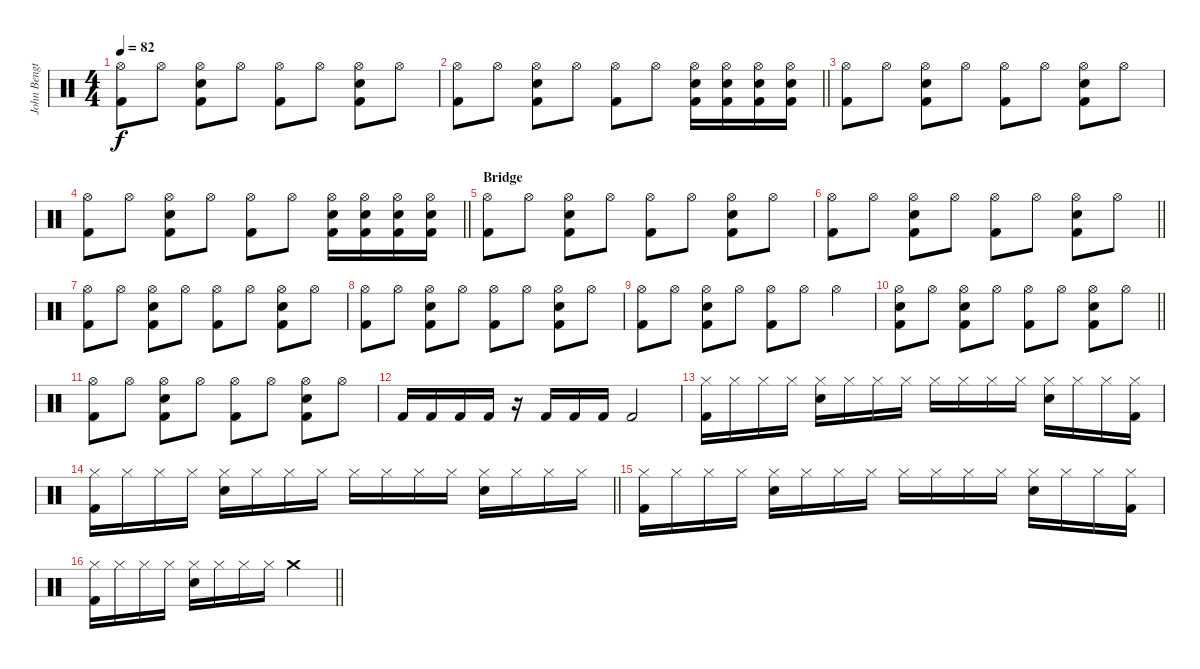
\track ("John Bengtsson" "John Bengt") {instrument percussion}
\staff {score}
\articulation defaults
\ts (4 4)
\tempo 82
\clef neutral
\ks c
("Hi-Hat (open)" "Kick (hit) 2").8{dy f} "Hi-Hat (open)".8 ("Hi-Hat (open)" "Electric Snare (hit)" "Kick (hit) 2").8 "Hi-Hat (open)".8 ("Hi-Hat (open)" "Kick (hit) 2").8 "Hi-Hat (open)".8 ("Hi-Hat (open)" "Electric Snare (hit)" "Kick (hit) 2").8 "Hi-Hat (open)".8 |
\barLineRight lightlight
("Hi-Hat (open)" "Kick (hit) 2").8 "Hi-Hat (open)".8 ("Hi-Hat (open)" "Electric Snare (hit)" "Kick (hit) 2").8 "Hi-Hat (open)".8 ("Hi-Hat (open)" "Kick (hit) 2").8 "Hi-Hat (open)".8 ("Hi-Hat (open)" "Electric Snare (hit)" "Kick (hit) 2").16 ("Hi-Hat (open)" "Electric Snare (hit)" "Kick (hit) 2").16 ("Hi-Hat (open)" "Electric Snare (hit)" "Kick (hit) 2").16 ("Hi-Hat (open)" "Electric Snare (hit)" "Kick (hit) 2").16 |
("Hi-Hat (open)" "Kick (hit) 2").8 "Hi-Hat (open)".8 ("Hi-Hat (open)" "Electric Snare (hit)" "Kick (hit) 2").8 "Hi-Hat (open)".8 ("Hi-Hat (open)" "Kick (hit) 2").8 "Hi-Hat (open)".8 ("Hi-Hat (open)" "Electric Snare (hit)" "Kick (hit) 2").8 "Hi-Hat (open)".8 |
\barLineRight lightlight
("Hi-Hat (open)" "Kick (hit) 2").8 "Hi-Hat (open)".8 ("Hi-Hat (open)" "Electric Snare (hit)" "Kick (hit) 2").8 "Hi-Hat (open)".8 ("Hi-Hat (open)" "Kick (hit) 2").8 "Hi-Hat (open)".8 ("Hi-Hat (open)" "Electric Snare (hit)" "Kick (hit) 2").16 ("Hi-Hat (open)" "Electric Snare (hit)" "Kick (hit) 2").16 ("Hi-Hat (open)" "Electric Snare (hit)" "Kick (hit) 2").16 ("Hi-Hat (open)" "Electric Snare (hit)" "Kick (hit) 2").16 |
\section ("" "Bridge")
("Hi-Hat (open)" "Kick (hit) 2").8 "Hi-Hat (open)".8 ("Hi-Hat (open)" "Electric Snare (hit)" "Kick (hit) 2").8 "Hi-Hat (open)".8 ("Hi-Hat (open)" "Kick (hit) 2").8 "Hi-Hat (open)".8 ("Hi-Hat (open)" "Electric Snare (hit)" "Kick (hit) 2").8 "Hi-Hat (open)".8 |
\barLineRight lightlight
("Hi-Hat (open)" "Kick (hit) 2").8 "Hi-Hat (open)".8 ("Hi-Hat (open)" "Electric Snare (hit)" "Kick (hit) 2").8 "Hi-Hat (open)".8 ("Hi-Hat (open)" "Kick (hit) 2").8 "Hi-Hat (open)".8 ("Hi-Hat (open)" "Electric Snare (hit)" "Kick (hit) 2").8 "Hi-Hat (open)".8 |
("Hi-Hat (open)" "Kick (hit) 2").8 "Hi-Hat (open)".8 ("Hi-Hat (open)" "Electric Snare (hit)" "Kick (hit) 2").8 "Hi-Hat (open)".8 ("Hi-Hat (open)" "Kick (hit) 2").8 "Hi-Hat (open)".8 ("Hi-Hat (open)" "Electric Snare (hit)" "Kick (hit) 2").8 "Hi-Hat (open)".8 |
("Hi-Hat (open)" "Kick (hit) 2").8 "Hi-Hat (open)".8 ("Hi-Hat (open)" "Electric Snare (hit)" "Kick (hit) 2").8 "Hi-Hat (open)".8 ("Hi-Hat (open)" "Kick (hit) 2").8 "Hi-Hat (open)".8 ("Hi-Hat (open)" "Electric Snare (hit)" "Kick (hit) 2").8 "Hi-Hat (open)".8 |
("Hi-Hat (open)" "Kick (hit) 2").8 "Hi-Hat (open)".8 ("Hi-Hat (open)" "Electric Snare (hit)" "Kick (hit) 2").8 "Hi-Hat (open)".8 ("Hi-Hat (open)" "Kick (hit) 2").8 "Hi-Hat (open)".8 "Hi-Hat (open)".4 |
\barLineRight lightlight
("Hi-Hat (open)" "Electric Snare (hit)" "Kick (hit) 2").8 "Hi-Hat (open)".8 ("Hi-Hat (open)" "Electric Snare (hit)" "Kick (hit) 2").8 "Hi-Hat (open)".8 ("Hi-Hat (open)" "Kick (hit) 2").8 "Hi-Hat (open)".8 ("Hi-Hat (open)" "Electric Snare (hit)" "Kick (hit) 2").8 "Hi-Hat (open)".8 |
("Hi-Hat (open)" "Kick (hit) 2").8 "Hi-Hat (open)".8 ("Hi-Hat (open)" "Electric Snare (hit)" "Kick (hit) 2").8 "Hi-Hat (open)".8 ("Hi-Hat (open)" "Kick (hit) 2").8 "Hi-Hat (open)".8 ("Hi-Hat (open)" "Electric Snare (hit)" "Kick (hit) 2").8 "Hi-Hat (open)".8 |
"Kick (hit) 2".16 "Kick (hit) 2".16 "Kick (hit) 2".16 "Kick (hit) 2".16 r.16 "Kick (hit) 2".16 "Kick (hit) 2".16 "Kick (hit) 2".16 "Kick (hit) 2".2 |
("Hi-Hat (closed)" "Kick (hit) 2").16 "Hi-Hat (closed)".16 "Hi-Hat (closed)".16 "Hi-Hat (closed)".16 ("Hi-Hat (closed)" "Electric Snare (hit)").16 "Hi-Hat (closed)".16 "Hi-Hat (closed)".16 "Hi-Hat (closed)".16 "Hi-Hat (closed)".16 "Hi-Hat (closed)".16 "Hi-Hat (closed)".16 "Hi-Hat (closed)".16 ("Hi-Hat (closed)" "Electric Snare (hit)").16 "Hi-Hat (closed)".16 "Hi-Hat (closed)".16 ("Hi-Hat (closed)" "Kick (hit) 2").16 |
\barLineRight lightlight
("Hi-Hat (closed)" "Kick (hit) 2").16 "Hi-Hat (closed)".16 "Hi-Hat (closed)".16 "Hi-Hat (closed)".16 ("Hi-Hat (closed)" "Electric Snare (hit)").16 "Hi-Hat (closed)".16 "Hi-Hat (closed)".16 "Hi-Hat (closed)".16 "Hi-Hat (closed)".16 "Hi-Hat (closed)".16 "Hi-Hat (closed)".16 "Hi-Hat (closed)".16 ("Hi-Hat (closed)" "Electric Snare (hit)").16 "Hi-Hat (closed)".16 "Hi-Hat (closed)".16 "Hi-Hat (closed)".16 |
("Hi-Hat (closed)" "Kick (hit) 2").16 "Hi-Hat (closed)".16 "Hi-Hat (closed)".16 "Hi-Hat (closed)".16 ("Hi-Hat (closed)" "Electric Snare (hit)").16 "Hi-Hat (closed)".16 "Hi-Hat (closed)".16 "Hi-Hat (closed)".16 "Hi-Hat (closed)".16 "Hi-Hat (closed)".16 "Hi-Hat (closed)".16 "Hi-Hat (closed)".16 ("Hi-Hat (closed)" "Electric Snare (hit)").16 "Hi-Hat (closed)".16 "Hi-Hat (closed)".16 ("Hi-Hat (closed)" "Kick (hit) 2").16 |
\barLineRight lightlight
("Hi-Hat (closed)" "Kick (hit) 2").16 "Hi-Hat (closed)".16 "Hi-Hat (closed)".16 "Hi-Hat (closed)".16 ("Hi-Hat (closed)" "Electric Snare (hit)").16 "Hi-Hat (closed)".16 "Hi-Hat (closed)".16 "Hi-Hat (closed)".16 "Crash medium (hit)".2
